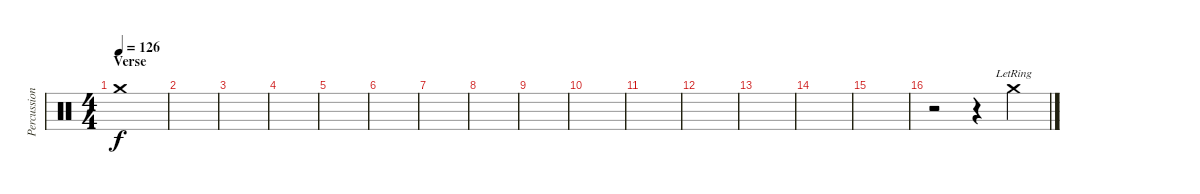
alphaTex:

\track ("Percussion" "Percussion") {instrument percussion}
\staff {score}
\articulation defaults
\ts (4 4)
\section ("" "Verse")
\tempo 126
\clef neutral
\ks c "Crash medium (hit)".1{dy f}
|
|
|
|
|
|
|
|
|
|
|
|
|
|
|
r.2 r.4 "Crash medium (hit)"{lr}.4
